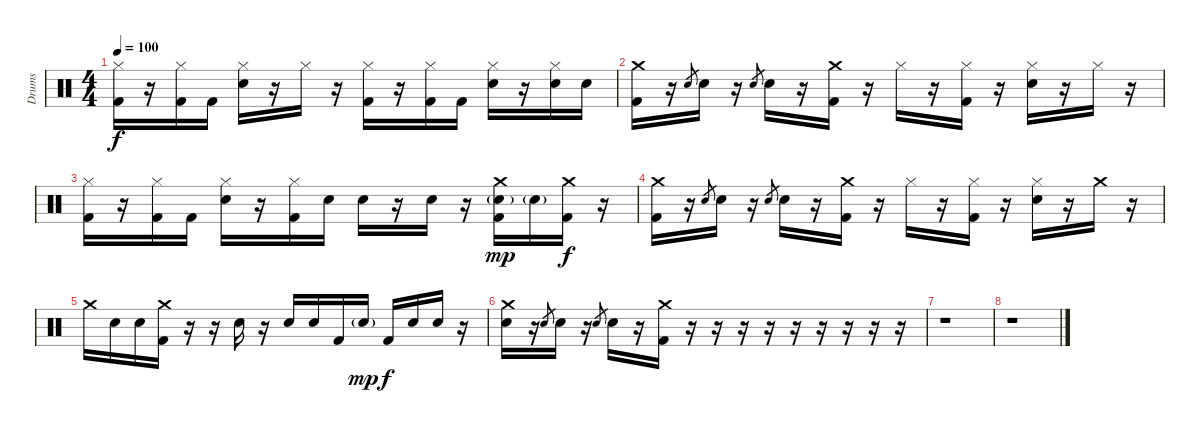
\track ("Drums" "Drums") {instrument percussion}
\staff {score}
\articulation defaults
\ts (4 4)
\tempo 100
\clef neutral
\ks c
("Hi-Hat (closed)" "Kick (hit) 2").16{dy f} r.16 ("Hi-Hat (closed)" "Kick (hit) 2").16 "Kick (hit) 2".16 ("Hi-Hat (closed)" "Snare (hit) 2").16 r.16 "Hi-Hat (closed)".16 r.16 ("Hi-Hat (closed)" "Kick (hit) 2").16 r.16 ("Hi-Hat (closed)" "Kick (hit) 2").16 "Kick (hit) 2".16 ("Hi-Hat (closed)" "Snare (hit) 2").16 r.16 ("Hi-Hat (closed)" "Snare (hit) 2").16 "Snare (hit) 2".16 |
("Crash medium (hit)" "Kick (hit) 2").16 r.16 "Snare (hit) 2".8{gr} "Snare (hit) 2".16 r.16 "Snare (hit) 2".8{gr} "Snare (hit) 2".16 r.16 ("Crash medium (hit)" "Kick (hit) 2").16 r.16 "Hi-Hat (closed)".16 r.16 ("Hi-Hat (closed)" "Kick (hit) 2").16 r.16 ("Hi-Hat (closed)" "Snare (hit) 2").16 r.16 "Hi-Hat (closed)".16 r.16 |
("Hi-Hat (closed)" "Kick (hit) 2").16 r.16 ("Hi-Hat (closed)" "Kick (hit) 2").16 "Kick (hit) 2".16 ("Hi-Hat (closed)" "Snare (hit) 2").16 r.16 ("Hi-Hat (closed)" "Kick (hit) 2").16 "Snare (hit) 2".16 "Snare (hit) 2".16 r.16 "Snare (hit) 2".16 r.16 ("Crash medium (hit)" "Snare (hit) 2"{g} "Kick (hit) 2").16{dy mp} "Snare (hit) 2"{g}.16 ("Crash medium (hit)" "Kick (hit) 2").16{dy f} r.16 |
("Crash medium (hit)" "Kick (hit) 2").16 r.16 "Snare (hit) 2".8{gr} "Snare (hit) 2".16 r.16 "Snare (hit) 2".8{gr} "Snare (hit) 2".16 r.16 ("Crash medium (hit)" "Kick (hit) 2").16 r.16 "Hi-Hat (closed)".16 r.16 ("Hi-Hat (closed)" "Kick (hit) 2").16 r.16 ("Hi-Hat (closed)" "Snare (hit) 2").16 r.16 "Crash medium (hit)".16 r.16 |
"Crash medium (hit)".16 "Snare (hit) 2".16 "Snare (hit) 2".16 ("Crash medium (hit)" "Kick (hit) 2").16 r.16 r.16 "Snare (hit) 2".16 r.16 "Snare (hit) 2".16 "Snare (hit) 2".16 "Kick (hit) 2".16 "Snare (hit) 2"{g}.16{dy mp} "Kick (hit) 2".16{dy f} "Snare (hit) 2".16 "Snare (hit) 2".16 r.16 |
("Crash medium (hit)" "Snare (hit) 2").16 r.16 "Snare (hit) 2".8{gr} "Snare (hit) 2".16 r.16 "Snare (hit) 2".8{gr} "Snare (hit) 2".16 r.16 ("Crash medium (hit)" "Kick (hit) 2").16 r.16 r.16 r.16 r.16 r.16 r.16 r.16 r.16 r.16 |
r.1 |
r.1
